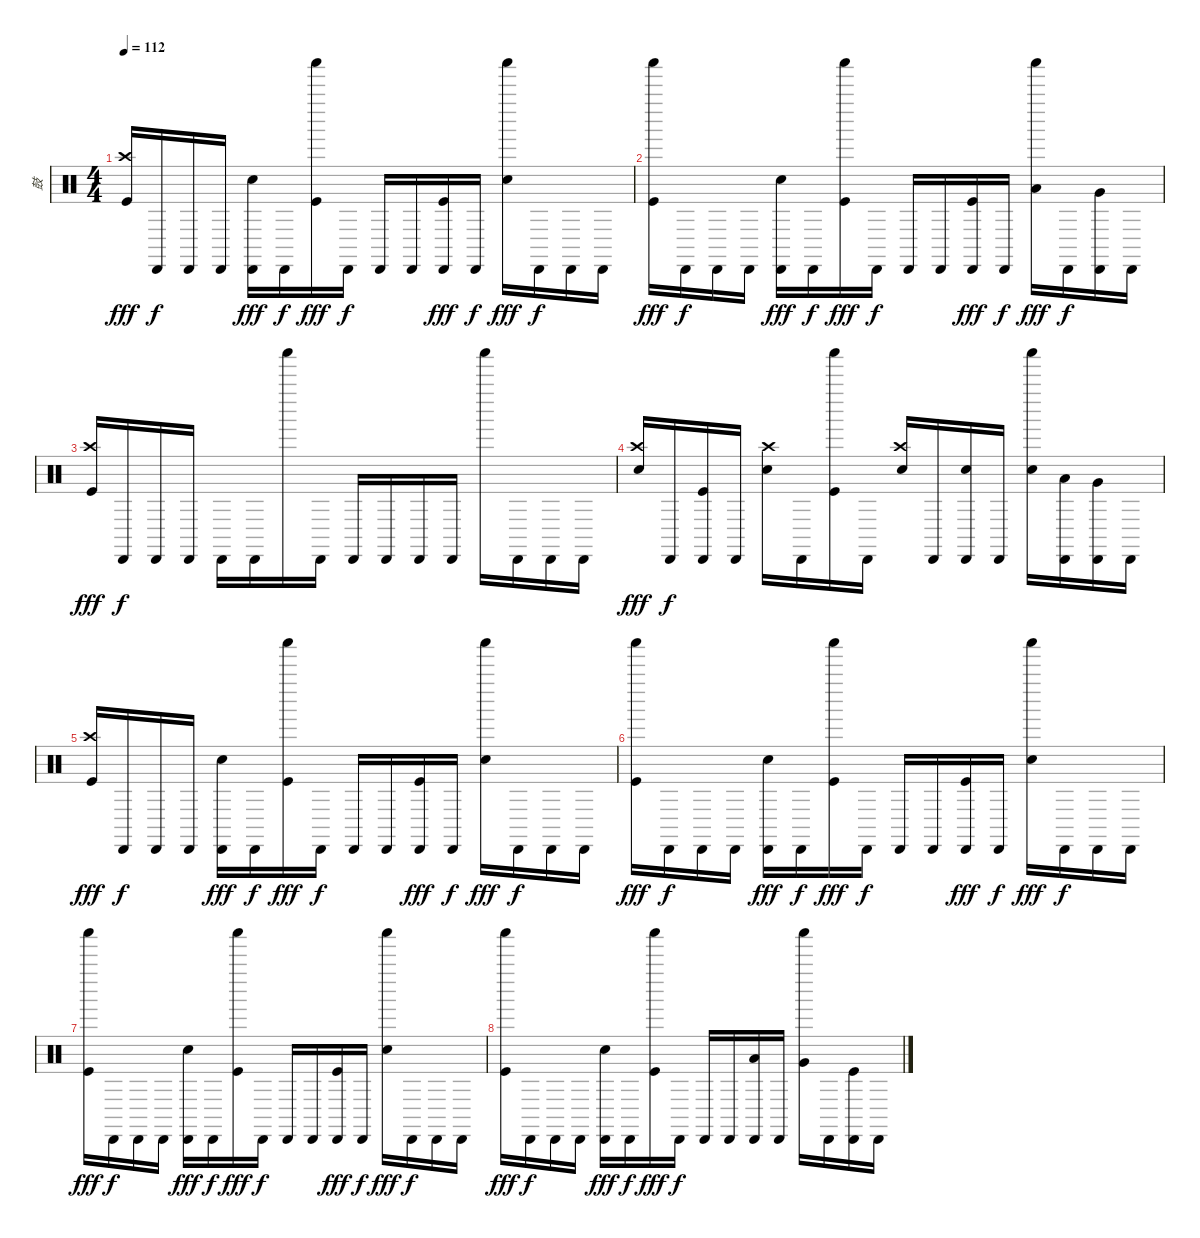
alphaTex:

\track ("鼓" "鼓") {instrument percussion}
\staff {score}
\articulation defaults
\ts (4 4)
\tempo 112
\clef neutral
\ks c
("Crash high (hit)" "Kick (hit)").16{dy fff} "Cabasa (hit)".16{dy f} "Cabasa (hit)".16 "Cabasa (hit)".16 ("Cabasa (hit)" "Electric Snare (hit)").16{dy fff} "Cabasa (hit)".16{dy f} ("Shaker (hit)" "Kick (hit)").16{dy fff} "Cabasa (hit)".16{dy f} "Cabasa (hit)".16 "Cabasa (hit)".16 ("Cabasa (hit)" "Kick (hit)").16{dy fff} "Cabasa (hit)".16{dy f} ("Shaker (hit)" "Electric Snare (hit)").16{dy fff} "Cabasa (hit)".16{dy f} "Cabasa (hit)".16 "Cabasa (hit)".16 |
("Shaker (hit)" "Kick (hit)").16{dy fff} "Cabasa (hit)".16{dy f} "Cabasa (hit)".16 "Cabasa (hit)".16 ("Cabasa (hit)" "Electric Snare (hit)").16{dy fff} "Cabasa (hit)".16{dy f} ("Shaker (hit)" "Kick (hit)").16{dy fff} "Cabasa (hit)".16{dy f} "Cabasa (hit)".16 "Cabasa (hit)".16 ("Cabasa (hit)" "Kick (hit)").16{dy fff} "Cabasa (hit)".16{dy f} ("Shaker (hit)" "Low Tom (hit)").16{dy fff} "Cabasa (hit)".16{dy f} ("Cabasa (hit)" "Very Low Tom (hit)").16 "Cabasa (hit)".16 |
("Crash high (hit)" "Kick (hit)").16{dy fff} "Cabasa (hit)".16{dy f} "Cabasa (hit)".16 "Cabasa (hit)".16 "Cabasa (hit)".16 "Cabasa (hit)".16 "Shaker (hit)".16 "Cabasa (hit)".16 "Cabasa (hit)".16 "Cabasa (hit)".16 "Cabasa (hit)".16 "Cabasa (hit)".16 "Shaker (hit)".16 "Cabasa (hit)".16 "Cabasa (hit)".16 "Cabasa (hit)".16 |
("Crash high (hit)" "Electric Snare (hit)").16{dy fff} "Cabasa (hit)".16{dy f} ("Cabasa (hit)" "Kick (hit)").16 "Cabasa (hit)".16 ("Crash high (hit)" "Electric Snare (hit)").16 "Cabasa (hit)".16 ("Shaker (hit)" "Kick (hit)").16 "Cabasa (hit)".16 ("Crash high (hit)" "Electric Snare (hit)").16 "Cabasa (hit)".16 ("Cabasa (hit)" "Electric Snare (hit)").16 "Cabasa (hit)".16 ("Shaker (hit)" "Electric Snare (hit)").16 ("Cabasa (hit)" "Low Tom (hit)").16 ("Cabasa (hit)" "Very Low Tom (hit)").16 "Cabasa (hit)".16 |
("Crash high (hit)" "Kick (hit)").16{dy fff} "Cabasa (hit)".16{dy f} "Cabasa (hit)".16 "Cabasa (hit)".16 ("Cabasa (hit)" "Electric Snare (hit)").16{dy fff} "Cabasa (hit)".16{dy f} ("Shaker (hit)" "Kick (hit)").16{dy fff} "Cabasa (hit)".16{dy f} "Cabasa (hit)".16 "Cabasa (hit)".16 ("Cabasa (hit)" "Kick (hit)").16{dy fff} "Cabasa (hit)".16{dy f} ("Shaker (hit)" "Electric Snare (hit)").16{dy fff} "Cabasa (hit)".16{dy f} "Cabasa (hit)".16 "Cabasa (hit)".16 |
("Shaker (hit)" "Kick (hit)").16{dy fff} "Cabasa (hit)".16{dy f} "Cabasa (hit)".16 "Cabasa (hit)".16 ("Cabasa (hit)" "Electric Snare (hit)").16{dy fff} "Cabasa (hit)".16{dy f} ("Shaker (hit)" "Kick (hit)").16{dy fff} "Cabasa (hit)".16{dy f} "Cabasa (hit)".16 "Cabasa (hit)".16 ("Cabasa (hit)" "Kick (hit)").16{dy fff} "Cabasa (hit)".16{dy f} ("Shaker (hit)" "Electric Snare (hit)").16{dy fff} "Cabasa (hit)".16{dy f} "Cabasa (hit)".16 "Cabasa (hit)".16 |
("Shaker (hit)" "Kick (hit)").16{dy fff} "Cabasa (hit)".16{dy f} "Cabasa (hit)".16 "Cabasa (hit)".16 ("Cabasa (hit)" "Electric Snare (hit)").16{dy fff} "Cabasa (hit)".16{dy f} ("Shaker (hit)" "Kick (hit)").16{dy fff} "Cabasa (hit)".16{dy f} "Cabasa (hit)".16 "Cabasa (hit)".16 ("Cabasa (hit)" "Kick (hit)").16{dy fff} "Cabasa (hit)".16{dy f} ("Shaker (hit)" "Electric Snare (hit)").16{dy fff} "Cabasa (hit)".16{dy f} "Cabasa (hit)".16 "Cabasa (hit)".16 |
("Shaker (hit)" "Kick (hit)").16{dy fff} "Cabasa (hit)".16{dy f} "Cabasa (hit)".16 "Cabasa (hit)".16 ("Cabasa (hit)" "Electric Snare (hit)").16{dy fff} "Cabasa (hit)".16{dy f} ("Shaker (hit)" "Kick (hit)").16{dy fff} "Cabasa (hit)".16{dy f} "Cabasa (hit)".16 "Cabasa (hit)".16 ("Cabasa (hit)" "Low Tom (hit)").16 "Cabasa (hit)".16 ("Shaker (hit)" "Very Low Tom (hit)").16 "Cabasa (hit)".16 ("Cabasa (hit)" "Kick (hit)").16 "Cabasa (hit)".16
